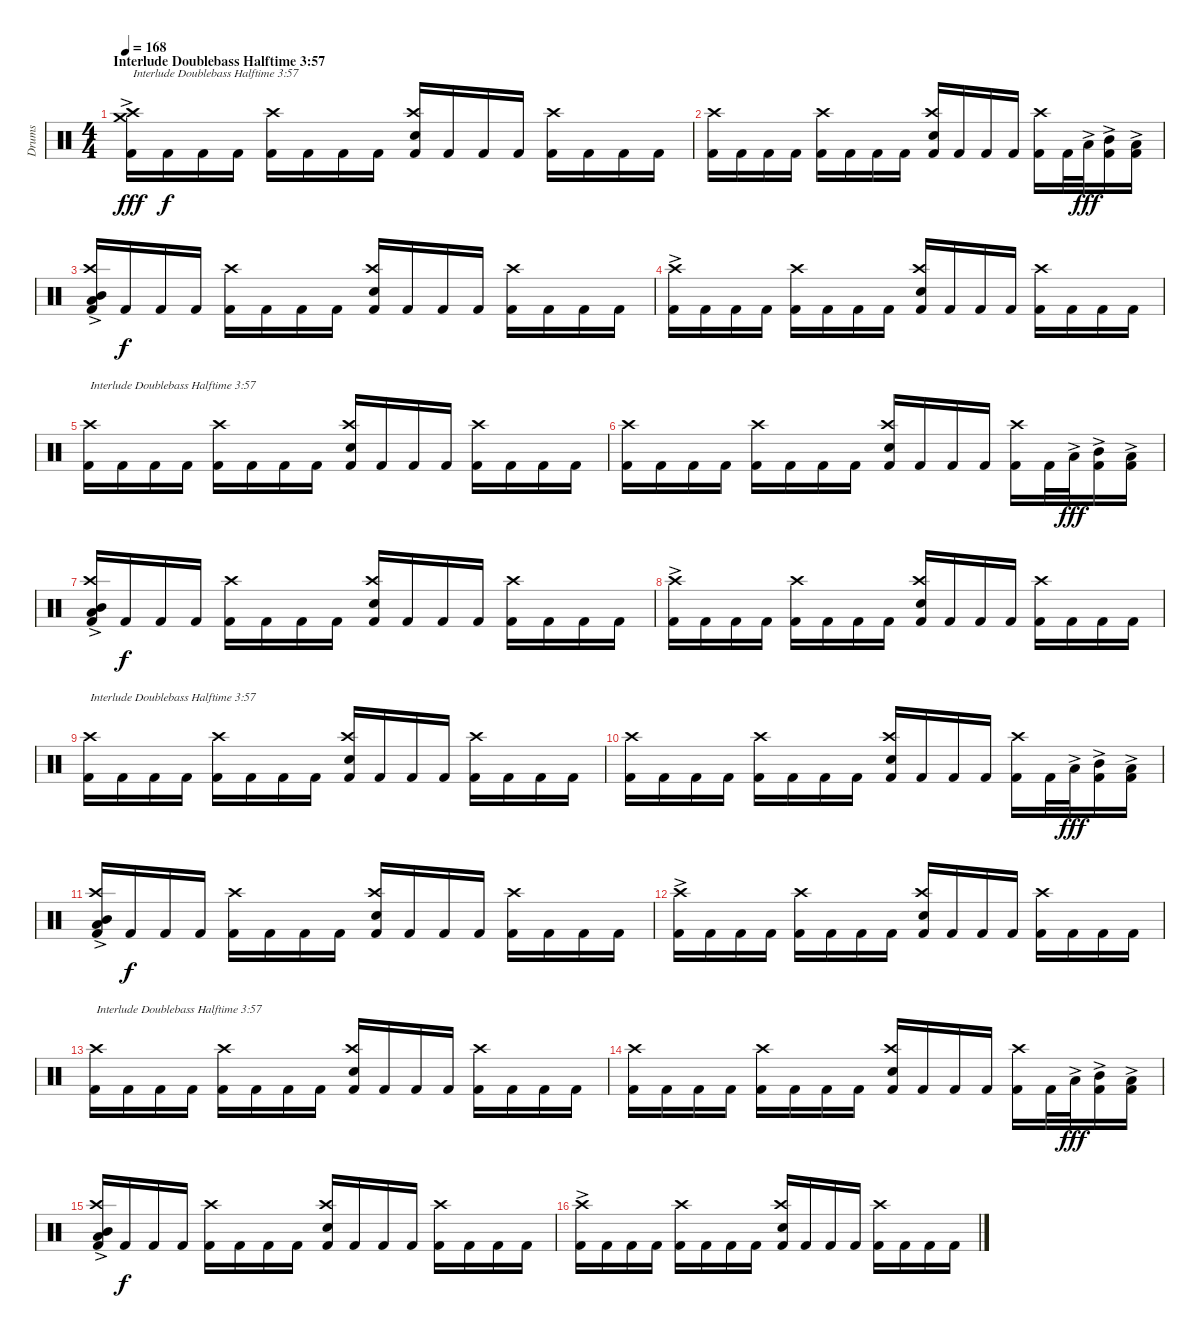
\track ("Drums" "Drums") {instrument percussion}
\staff {score}
\articulation defaults
\ts (4 4)
\section ("" "Interlude Doublebass Halftime 3:57")
\tempo 168
\clef neutral
\ks c
("Kick (hit) 2" "Crash high (hit)"{ac} "Crash medium (hit)"{ac}).16{txt "Interlude Doublebass Halftime 3:57" dy fff} "Kick (hit) 2".16{dy f} "Kick (hit) 2".16 "Kick (hit) 2".16 ("Kick (hit) 2" "Crash high (hit)").16 "Kick (hit) 2".16 "Kick (hit) 2".16 "Kick (hit) 2".16 ("Kick (hit) 2" "Electric Snare (hit)" "Crash high (hit)").16 "Kick (hit) 2".16 "Kick (hit) 2".16 "Kick (hit) 2".16 ("Kick (hit) 2" "Crash high (hit)").16 "Kick (hit) 2".16 "Kick (hit) 2".16 "Kick (hit) 2".16 |
("Kick (hit) 2" "Crash high (hit)").16 "Kick (hit) 2".16 "Kick (hit) 2".16 "Kick (hit) 2".16 ("Kick (hit) 2" "Crash high (hit)").16 "Kick (hit) 2".16 "Kick (hit) 2".16 "Kick (hit) 2".16 ("Kick (hit) 2" "Electric Snare (hit)" "Crash high (hit)").16 "Kick (hit) 2".16 "Kick (hit) 2".16 "Kick (hit) 2".16 ("Kick (hit) 2" "Crash high (hit)").16 "Kick (hit) 2".32 "Low Tom (hit)"{ac}.32{dy fff} ("Kick (hit) 2" "Mid Tom (hit)"{ac}).16 ("Kick (hit) 2" "Low Tom (hit)"{ac}).16 |
("Kick (hit) 2" "Low Tom (hit)"{ac} "Mid Tom (hit)"{ac} "Crash high (hit)"{ac}).16 "Kick (hit) 2".16{dy f} "Kick (hit) 2".16 "Kick (hit) 2".16 ("Kick (hit) 2" "Crash high (hit)").16 "Kick (hit) 2".16 "Kick (hit) 2".16 "Kick (hit) 2".16 ("Kick (hit) 2" "Electric Snare (hit)" "Crash high (hit)").16 "Kick (hit) 2".16 "Kick (hit) 2".16 "Kick (hit) 2".16 ("Kick (hit) 2" "Crash high (hit)").16 "Kick (hit) 2".16 "Kick (hit) 2".16 "Kick (hit) 2".16 |
("Kick (hit) 2" "Crash high (hit)"{ac}).16 "Kick (hit) 2".16 "Kick (hit) 2".16 "Kick (hit) 2".16 ("Kick (hit) 2" "Crash high (hit)").16 "Kick (hit) 2".16 "Kick (hit) 2".16 "Kick (hit) 2".16 ("Kick (hit) 2" "Electric Snare (hit)" "Crash high (hit)").16 "Kick (hit) 2".16 "Kick (hit) 2".16 "Kick (hit) 2".16 ("Kick (hit) 2" "Crash high (hit)").16 "Kick (hit) 2".16 "Kick (hit) 2".16 "Kick (hit) 2".16 |
("Kick (hit) 2" "Crash high (hit)").16{txt "Interlude Doublebass Halftime 3:57"} "Kick (hit) 2".16 "Kick (hit) 2".16 "Kick (hit) 2".16 ("Kick (hit) 2" "Crash high (hit)").16 "Kick (hit) 2".16 "Kick (hit) 2".16 "Kick (hit) 2".16 ("Kick (hit) 2" "Electric Snare (hit)" "Crash high (hit)").16 "Kick (hit) 2".16 "Kick (hit) 2".16 "Kick (hit) 2".16 ("Kick (hit) 2" "Crash high (hit)").16 "Kick (hit) 2".16 "Kick (hit) 2".16 "Kick (hit) 2".16 |
("Kick (hit) 2" "Crash high (hit)").16 "Kick (hit) 2".16 "Kick (hit) 2".16 "Kick (hit) 2".16 ("Kick (hit) 2" "Crash high (hit)").16 "Kick (hit) 2".16 "Kick (hit) 2".16 "Kick (hit) 2".16 ("Kick (hit) 2" "Electric Snare (hit)" "Crash high (hit)").16 "Kick (hit) 2".16 "Kick (hit) 2".16 "Kick (hit) 2".16 ("Kick (hit) 2" "Crash high (hit)").16 "Kick (hit) 2".32 "Low Tom (hit)"{ac}.32{dy fff} ("Kick (hit) 2" "Mid Tom (hit)"{ac}).16 ("Kick (hit) 2" "Low Tom (hit)"{ac}).16 |
("Kick (hit) 2" "Low Tom (hit)"{ac} "Mid Tom (hit)"{ac} "Crash high (hit)"{ac}).16 "Kick (hit) 2".16{dy f} "Kick (hit) 2".16 "Kick (hit) 2".16 ("Kick (hit) 2" "Crash high (hit)").16 "Kick (hit) 2".16 "Kick (hit) 2".16 "Kick (hit) 2".16 ("Kick (hit) 2" "Electric Snare (hit)" "Crash high (hit)").16 "Kick (hit) 2".16 "Kick (hit) 2".16 "Kick (hit) 2".16 ("Kick (hit) 2" "Crash high (hit)").16 "Kick (hit) 2".16 "Kick (hit) 2".16 "Kick (hit) 2".16 |
("Kick (hit) 2" "Crash high (hit)"{ac}).16 "Kick (hit) 2".16 "Kick (hit) 2".16 "Kick (hit) 2".16 ("Kick (hit) 2" "Crash high (hit)").16 "Kick (hit) 2".16 "Kick (hit) 2".16 "Kick (hit) 2".16 ("Kick (hit) 2" "Electric Snare (hit)" "Crash high (hit)").16 "Kick (hit) 2".16 "Kick (hit) 2".16 "Kick (hit) 2".16 ("Kick (hit) 2" "Crash high (hit)").16 "Kick (hit) 2".16 "Kick (hit) 2".16 "Kick (hit) 2".16 |
("Kick (hit) 2" "Crash high (hit)").16{txt "Interlude Doublebass Halftime 3:57"} "Kick (hit) 2".16 "Kick (hit) 2".16 "Kick (hit) 2".16 ("Kick (hit) 2" "Crash high (hit)").16 "Kick (hit) 2".16 "Kick (hit) 2".16 "Kick (hit) 2".16 ("Kick (hit) 2" "Electric Snare (hit)" "Crash high (hit)").16 "Kick (hit) 2".16 "Kick (hit) 2".16 "Kick (hit) 2".16 ("Kick (hit) 2" "Crash high (hit)").16 "Kick (hit) 2".16 "Kick (hit) 2".16 "Kick (hit) 2".16 |
("Kick (hit) 2" "Crash high (hit)").16 "Kick (hit) 2".16 "Kick (hit) 2".16 "Kick (hit) 2".16 ("Kick (hit) 2" "Crash high (hit)").16 "Kick (hit) 2".16 "Kick (hit) 2".16 "Kick (hit) 2".16 ("Kick (hit) 2" "Electric Snare (hit)" "Crash high (hit)").16 "Kick (hit) 2".16 "Kick (hit) 2".16 "Kick (hit) 2".16 ("Kick (hit) 2" "Crash high (hit)").16 "Kick (hit) 2".32 "Low Tom (hit)"{ac}.32{dy fff} ("Kick (hit) 2" "Mid Tom (hit)"{ac}).16 ("Kick (hit) 2" "Low Tom (hit)"{ac}).16 |
("Kick (hit) 2" "Low Tom (hit)"{ac} "Mid Tom (hit)"{ac} "Crash high (hit)"{ac}).16 "Kick (hit) 2".16{dy f} "Kick (hit) 2".16 "Kick (hit) 2".16 ("Kick (hit) 2" "Crash high (hit)").16 "Kick (hit) 2".16 "Kick (hit) 2".16 "Kick (hit) 2".16 ("Kick (hit) 2" "Electric Snare (hit)" "Crash high (hit)").16 "Kick (hit) 2".16 "Kick (hit) 2".16 "Kick (hit) 2".16 ("Kick (hit) 2" "Crash high (hit)").16 "Kick (hit) 2".16 "Kick (hit) 2".16 "Kick (hit) 2".16 |
("Kick (hit) 2" "Crash high (hit)"{ac}).16 "Kick (hit) 2".16 "Kick (hit) 2".16 "Kick (hit) 2".16 ("Kick (hit) 2" "Crash high (hit)").16 "Kick (hit) 2".16 "Kick (hit) 2".16 "Kick (hit) 2".16 ("Kick (hit) 2" "Electric Snare (hit)" "Crash high (hit)").16 "Kick (hit) 2".16 "Kick (hit) 2".16 "Kick (hit) 2".16 ("Kick (hit) 2" "Crash high (hit)").16 "Kick (hit) 2".16 "Kick (hit) 2".16 "Kick (hit) 2".16 |
("Kick (hit) 2" "Crash high (hit)").16{txt "Interlude Doublebass Halftime 3:57"} "Kick (hit) 2".16 "Kick (hit) 2".16 "Kick (hit) 2".16 ("Kick (hit) 2" "Crash high (hit)").16 "Kick (hit) 2".16 "Kick (hit) 2".16 "Kick (hit) 2".16 ("Kick (hit) 2" "Electric Snare (hit)" "Crash high (hit)").16 "Kick (hit) 2".16 "Kick (hit) 2".16 "Kick (hit) 2".16 ("Kick (hit) 2" "Crash high (hit)").16 "Kick (hit) 2".16 "Kick (hit) 2".16 "Kick (hit) 2".16 |
("Kick (hit) 2" "Crash high (hit)").16 "Kick (hit) 2".16 "Kick (hit) 2".16 "Kick (hit) 2".16 ("Kick (hit) 2" "Crash high (hit)").16 "Kick (hit) 2".16 "Kick (hit) 2".16 "Kick (hit) 2".16 ("Kick (hit) 2" "Electric Snare (hit)" "Crash high (hit)").16 "Kick (hit) 2".16 "Kick (hit) 2".16 "Kick (hit) 2".16 ("Kick (hit) 2" "Crash high (hit)").16 "Kick (hit) 2".32 "Low Tom (hit)"{ac}.32{dy fff} ("Kick (hit) 2" "Mid Tom (hit)"{ac}).16 ("Kick (hit) 2" "Low Tom (hit)"{ac}).16 |
("Kick (hit) 2" "Low Tom (hit)"{ac} "Mid Tom (hit)"{ac} "Crash high (hit)"{ac}).16 "Kick (hit) 2".16{dy f} "Kick (hit) 2".16 "Kick (hit) 2".16 ("Kick (hit) 2" "Crash high (hit)").16 "Kick (hit) 2".16 "Kick (hit) 2".16 "Kick (hit) 2".16 ("Kick (hit) 2" "Electric Snare (hit)" "Crash high (hit)").16 "Kick (hit) 2".16 "Kick (hit) 2".16 "Kick (hit) 2".16 ("Kick (hit) 2" "Crash high (hit)").16 "Kick (hit) 2".16 "Kick (hit) 2".16 "Kick (hit) 2".16 |
("Kick (hit) 2" "Crash high (hit)"{ac}).16 "Kick (hit) 2".16 "Kick (hit) 2".16 "Kick (hit) 2".16 ("Kick (hit) 2" "Crash high (hit)").16 "Kick (hit) 2".16 "Kick (hit) 2".16 "Kick (hit) 2".16 ("Kick (hit) 2" "Electric Snare (hit)" "Crash high (hit)").16 "Kick (hit) 2".16 "Kick (hit) 2".16 "Kick (hit) 2".16 ("Kick (hit) 2" "Crash high (hit)").16 "Kick (hit) 2".16 "Kick (hit) 2".16 "Kick (hit) 2".16
